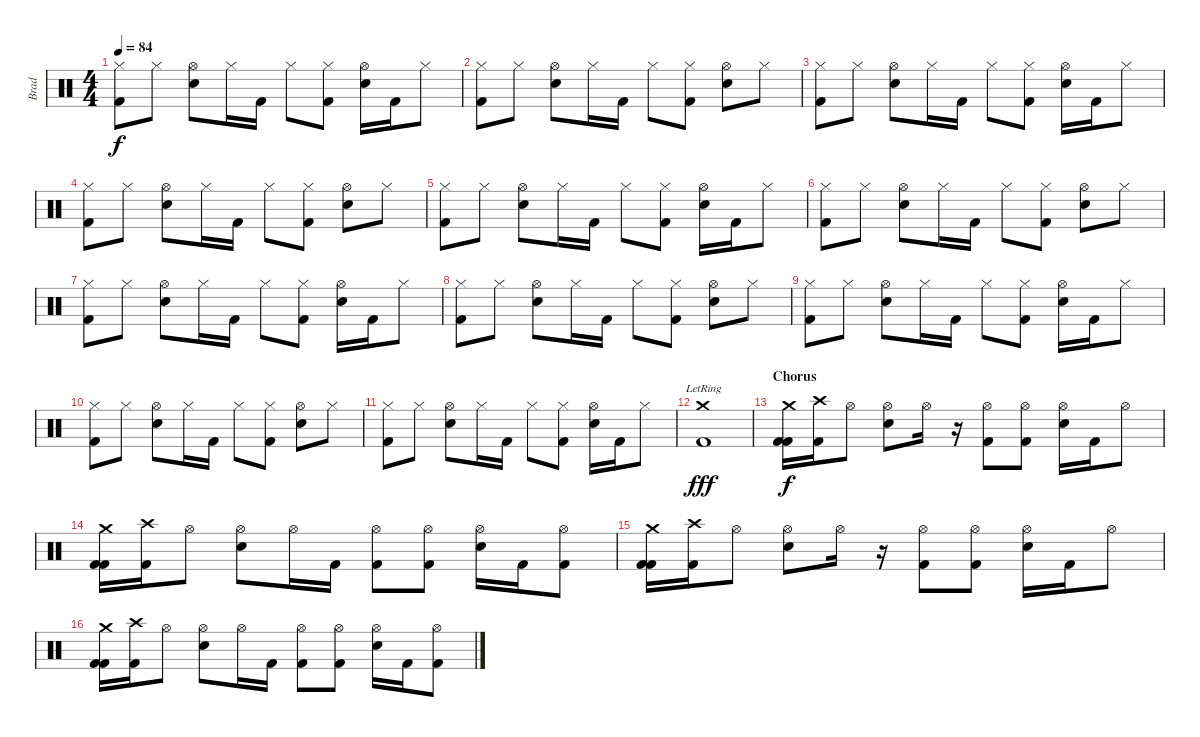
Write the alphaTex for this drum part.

\track ("Brad" "Brad") {instrument percussion}
\staff {score}
\articulation defaults
\ts (4 4)
\tempo 84
\clef neutral
\ks c
("Hi-Hat (closed)" "Kick (hit) 2").8{dy f} "Hi-Hat (closed)".8 ("Hi-Hat (open)" "Electric Snare (hit)").8 "Hi-Hat (closed)".16 "Kick (hit) 2".16 "Hi-Hat (closed)".8 ("Hi-Hat (closed)" "Kick (hit) 2").8 ("Hi-Hat (open)" "Electric Snare (hit)").16 "Kick (hit) 2".16 "Hi-Hat (closed)".8 |
("Hi-Hat (closed)" "Kick (hit) 2").8 "Hi-Hat (closed)".8 ("Hi-Hat (open)" "Electric Snare (hit)").8 "Hi-Hat (closed)".16 "Kick (hit) 2".16 "Hi-Hat (closed)".8 ("Hi-Hat (closed)" "Kick (hit) 2").8 ("Hi-Hat (open)" "Electric Snare (hit)").8 "Hi-Hat (closed)".8 |
("Hi-Hat (closed)" "Kick (hit) 2").8 "Hi-Hat (closed)".8 ("Hi-Hat (open)" "Electric Snare (hit)").8 "Hi-Hat (closed)".16 "Kick (hit) 2".16 "Hi-Hat (closed)".8 ("Hi-Hat (closed)" "Kick (hit) 2").8 ("Hi-Hat (open)" "Electric Snare (hit)").16 "Kick (hit) 2".16 "Hi-Hat (closed)".8 |
("Hi-Hat (closed)" "Kick (hit) 2").8 "Hi-Hat (closed)".8 ("Hi-Hat (open)" "Electric Snare (hit)").8 "Hi-Hat (closed)".16 "Kick (hit) 2".16 "Hi-Hat (closed)".8 ("Hi-Hat (closed)" "Kick (hit) 2").8 ("Hi-Hat (open)" "Electric Snare (hit)").8 "Hi-Hat (closed)".8 |
("Hi-Hat (closed)" "Kick (hit) 2").8 "Hi-Hat (closed)".8 ("Hi-Hat (open)" "Electric Snare (hit)").8 "Hi-Hat (closed)".16 "Kick (hit) 2".16 "Hi-Hat (closed)".8 ("Hi-Hat (closed)" "Kick (hit) 2").8 ("Hi-Hat (open)" "Electric Snare (hit)").16 "Kick (hit) 2".16 "Hi-Hat (closed)".8 |
("Hi-Hat (closed)" "Kick (hit) 2").8 "Hi-Hat (closed)".8 ("Hi-Hat (open)" "Electric Snare (hit)").8 "Hi-Hat (closed)".16 "Kick (hit) 2".16 "Hi-Hat (closed)".8 ("Hi-Hat (closed)" "Kick (hit) 2").8 ("Hi-Hat (open)" "Electric Snare (hit)").8 "Hi-Hat (closed)".8 |
("Hi-Hat (closed)" "Kick (hit) 2").8 "Hi-Hat (closed)".8 ("Hi-Hat (open)" "Electric Snare (hit)").8 "Hi-Hat (closed)".16 "Kick (hit) 2".16 "Hi-Hat (closed)".8 ("Hi-Hat (closed)" "Kick (hit) 2").8 ("Hi-Hat (open)" "Electric Snare (hit)").16 "Kick (hit) 2".16 "Hi-Hat (closed)".8 |
("Hi-Hat (closed)" "Kick (hit) 2").8 "Hi-Hat (closed)".8 ("Hi-Hat (open)" "Electric Snare (hit)").8 "Hi-Hat (closed)".16 "Kick (hit) 2".16 "Hi-Hat (closed)".8 ("Hi-Hat (closed)" "Kick (hit) 2").8 ("Hi-Hat (open)" "Electric Snare (hit)").8 "Hi-Hat (closed)".8 |
("Hi-Hat (closed)" "Kick (hit) 2").8 "Hi-Hat (closed)".8 ("Hi-Hat (open)" "Electric Snare (hit)").8 "Hi-Hat (closed)".16 "Kick (hit) 2".16 "Hi-Hat (closed)".8 ("Hi-Hat (closed)" "Kick (hit) 2").8 ("Hi-Hat (open)" "Electric Snare (hit)").16 "Kick (hit) 2".16 "Hi-Hat (closed)".8 |
("Hi-Hat (closed)" "Kick (hit) 2").8 "Hi-Hat (closed)".8 ("Hi-Hat (open)" "Electric Snare (hit)").8 "Hi-Hat (closed)".16 "Kick (hit) 2".16 "Hi-Hat (closed)".8 ("Hi-Hat (closed)" "Kick (hit) 2").8 ("Hi-Hat (open)" "Electric Snare (hit)").8 "Hi-Hat (closed)".8 |
("Hi-Hat (closed)" "Kick (hit) 2").8 "Hi-Hat (closed)".8 ("Hi-Hat (open)" "Electric Snare (hit)").8 "Hi-Hat (closed)".16 "Kick (hit) 2".16 "Hi-Hat (closed)".8 ("Hi-Hat (closed)" "Kick (hit) 2").8 ("Hi-Hat (open)" "Electric Snare (hit)").16 "Kick (hit) 2".16 "Hi-Hat (closed)".8 |
("Crash medium (hit)"{lr} "Kick (hit) 2").1{dy fff} |
\section ("" "Chorus")
("Crash medium (hit)" "Kick (hit) 2" "Kick (hit) 2").16{dy f} ("Crash high (hit)" "Kick (hit) 2").16 "Hi-Hat (open)".8 ("Hi-Hat (open)" "Electric Snare (hit)").8 "Hi-Hat (open)".16 r.16 ("Hi-Hat (open)" "Kick (hit) 2").8 ("Hi-Hat (open)" "Kick (hit) 2").8 ("Hi-Hat (open)" "Electric Snare (hit)").16 "Kick (hit) 2".16 "Hi-Hat (open)".8 |
("Crash medium (hit)" "Kick (hit) 2" "Kick (hit) 2").16 ("Crash high (hit)" "Kick (hit) 2").16 "Hi-Hat (open)".8 ("Hi-Hat (open)" "Electric Snare (hit)").8 "Hi-Hat (open)".16 "Kick (hit) 2".16 ("Hi-Hat (open)" "Kick (hit) 2").8 ("Hi-Hat (open)" "Kick (hit) 2").8 ("Hi-Hat (open)" "Electric Snare (hit)").16 "Kick (hit) 2".16 ("Hi-Hat (open)" "Kick (hit) 2").8 |
("Crash medium (hit)" "Kick (hit) 2" "Kick (hit) 2").16 ("Crash high (hit)" "Kick (hit) 2").16 "Hi-Hat (open)".8 ("Hi-Hat (open)" "Electric Snare (hit)").8 "Hi-Hat (open)".16 r.16 ("Hi-Hat (open)" "Kick (hit) 2").8 ("Hi-Hat (open)" "Kick (hit) 2").8 ("Hi-Hat (open)" "Electric Snare (hit)").16 "Kick (hit) 2".16 "Hi-Hat (open)".8 |
("Crash medium (hit)" "Kick (hit) 2" "Kick (hit) 2").16 ("Crash high (hit)" "Kick (hit) 2").16 "Hi-Hat (open)".8 ("Hi-Hat (open)" "Electric Snare (hit)").8 "Hi-Hat (open)".16 "Kick (hit) 2".16 ("Hi-Hat (open)" "Kick (hit) 2").8 ("Hi-Hat (open)" "Kick (hit) 2").8 ("Hi-Hat (open)" "Electric Snare (hit)").16 "Kick (hit) 2".16 ("Hi-Hat (open)" "Kick (hit) 2").8
